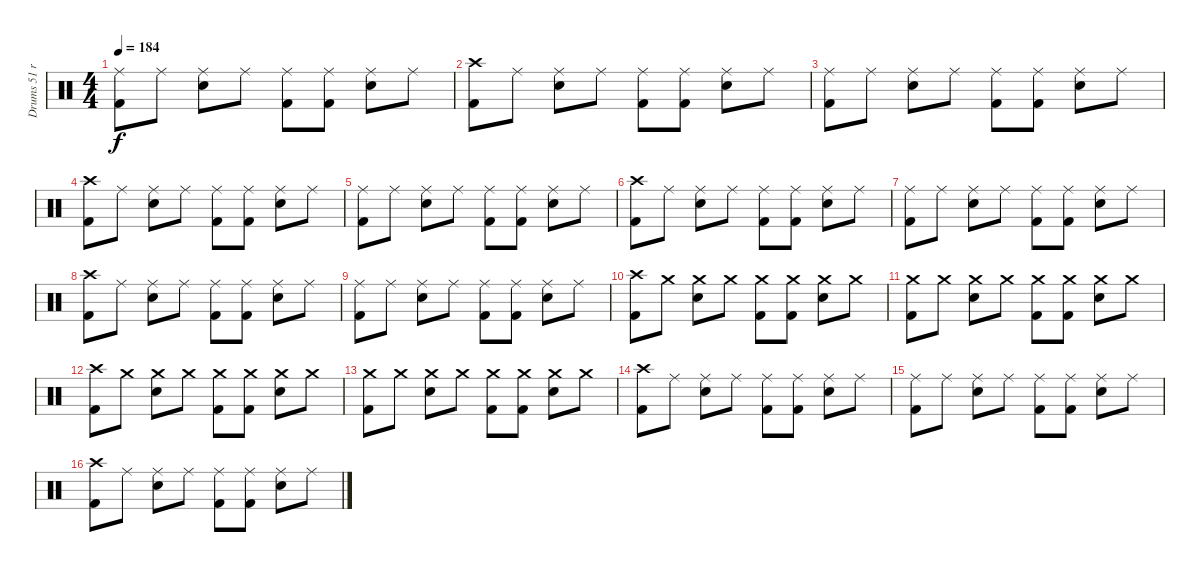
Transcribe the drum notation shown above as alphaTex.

\track ("Drums 51 ride" "Drums 51 r") {mute instrument percussion}
\staff {score}
\articulation defaults
\ts (4 4)
\tempo 184
\clef neutral
\ks c
("Ride (middle)" "Kick (hit) 2").8{dy f} "Ride (middle)".8 ("Ride (middle)" "Snare (hit) 2").8 "Ride (middle)".8 ("Ride (middle)" "Kick (hit) 2").8 ("Ride (middle)" "Kick (hit) 2").8 ("Ride (middle)" "Snare (hit) 2").8 "Ride (middle)".8 |
("Crash high (hit)" "Kick (hit) 2").8 "Ride (middle)".8 ("Ride (middle)" "Snare (hit) 2").8 "Ride (middle)".8 ("Ride (middle)" "Kick (hit) 2").8 ("Ride (middle)" "Kick (hit) 2").8 ("Ride (middle)" "Snare (hit) 2").8 "Ride (middle)".8 |
("Ride (middle)" "Kick (hit) 2").8 "Ride (middle)".8 ("Ride (middle)" "Snare (hit) 2").8 "Ride (middle)".8 ("Ride (middle)" "Kick (hit) 2").8 ("Ride (middle)" "Kick (hit) 2").8 ("Ride (middle)" "Snare (hit) 2").8 "Ride (middle)".8 |
("Crash high (hit)" "Kick (hit) 2").8 "Ride (middle)".8 ("Ride (middle)" "Snare (hit) 2").8 "Ride (middle)".8 ("Ride (middle)" "Kick (hit) 2").8 ("Ride (middle)" "Kick (hit) 2").8 ("Ride (middle)" "Snare (hit) 2").8 "Ride (middle)".8 |
("Ride (middle)" "Kick (hit) 2").8 "Ride (middle)".8 ("Ride (middle)" "Snare (hit) 2").8 "Ride (middle)".8 ("Ride (middle)" "Kick (hit) 2").8 ("Ride (middle)" "Kick (hit) 2").8 ("Ride (middle)" "Snare (hit) 2").8 "Ride (middle)".8 |
("Crash high (hit)" "Kick (hit) 2").8 "Ride (middle)".8 ("Ride (middle)" "Snare (hit) 2").8 "Ride (middle)".8 ("Ride (middle)" "Kick (hit) 2").8 ("Ride (middle)" "Kick (hit) 2").8 ("Ride (middle)" "Snare (hit) 2").8 "Ride (middle)".8 |
("Ride (middle)" "Kick (hit) 2").8 "Ride (middle)".8 ("Ride (middle)" "Snare (hit) 2").8 "Ride (middle)".8 ("Ride (middle)" "Kick (hit) 2").8 ("Ride (middle)" "Kick (hit) 2").8 ("Ride (middle)" "Snare (hit) 2").8 "Ride (middle)".8 |
("Crash high (hit)" "Kick (hit) 2").8 "Ride (middle)".8 ("Ride (middle)" "Snare (hit) 2").8 "Ride (middle)".8 ("Ride (middle)" "Kick (hit) 2").8 ("Ride (middle)" "Kick (hit) 2").8 ("Ride (middle)" "Snare (hit) 2").8 "Ride (middle)".8 |
("Ride (middle)" "Kick (hit) 2").8 "Ride (middle)".8 ("Ride (middle)" "Snare (hit) 2").8 "Ride (middle)".8 ("Ride (middle)" "Kick (hit) 2").8 ("Ride (middle)" "Kick (hit) 2").8 ("Ride (middle)" "Snare (hit) 2").8 "Ride (middle)".8 |
("Crash high (hit)" "Kick (hit) 2").8 "Crash medium (hit)".8 ("Crash medium (hit)" "Snare (hit) 2").8 "Crash medium (hit)".8 ("Crash medium (hit)" "Kick (hit) 2").8 ("Crash medium (hit)" "Kick (hit) 2").8 ("Crash medium (hit)" "Snare (hit) 2").8 "Crash medium (hit)".8 |
("Crash medium (hit)" "Kick (hit) 2").8 "Crash medium (hit)".8 ("Crash medium (hit)" "Snare (hit) 2").8 "Crash medium (hit)".8 ("Crash medium (hit)" "Kick (hit) 2").8 ("Crash medium (hit)" "Kick (hit) 2").8 ("Crash medium (hit)" "Snare (hit) 2").8 "Crash medium (hit)".8 |
("Crash high (hit)" "Kick (hit) 2").8 "Crash medium (hit)".8 ("Crash medium (hit)" "Snare (hit) 2").8 "Crash medium (hit)".8 ("Crash medium (hit)" "Kick (hit) 2").8 ("Crash medium (hit)" "Kick (hit) 2").8 ("Crash medium (hit)" "Snare (hit) 2").8 "Crash medium (hit)".8 |
("Crash medium (hit)" "Kick (hit) 2").8 "Crash medium (hit)".8 ("Crash medium (hit)" "Snare (hit) 2").8 "Crash medium (hit)".8 ("Crash medium (hit)" "Kick (hit) 2").8 ("Crash medium (hit)" "Kick (hit) 2").8 ("Crash medium (hit)" "Snare (hit) 2").8 "Crash medium (hit)".8 |
("Crash high (hit)" "Kick (hit) 2").8 "Ride (middle)".8 ("Ride (middle)" "Snare (hit) 2").8 "Ride (middle)".8 ("Ride (middle)" "Kick (hit) 2").8 ("Ride (middle)" "Kick (hit) 2").8 ("Ride (middle)" "Snare (hit) 2").8 "Ride (middle)".8 |
("Ride (middle)" "Kick (hit) 2").8 "Ride (middle)".8 ("Ride (middle)" "Snare (hit) 2").8 "Ride (middle)".8 ("Ride (middle)" "Kick (hit) 2").8 ("Ride (middle)" "Kick (hit) 2").8 ("Ride (middle)" "Snare (hit) 2").8 "Ride (middle)".8 |
("Crash high (hit)" "Kick (hit) 2").8 "Ride (middle)".8 ("Ride (middle)" "Snare (hit) 2").8 "Ride (middle)".8 ("Ride (middle)" "Kick (hit) 2").8 ("Ride (middle)" "Kick (hit) 2").8 ("Ride (middle)" "Snare (hit) 2").8 "Ride (middle)".8
